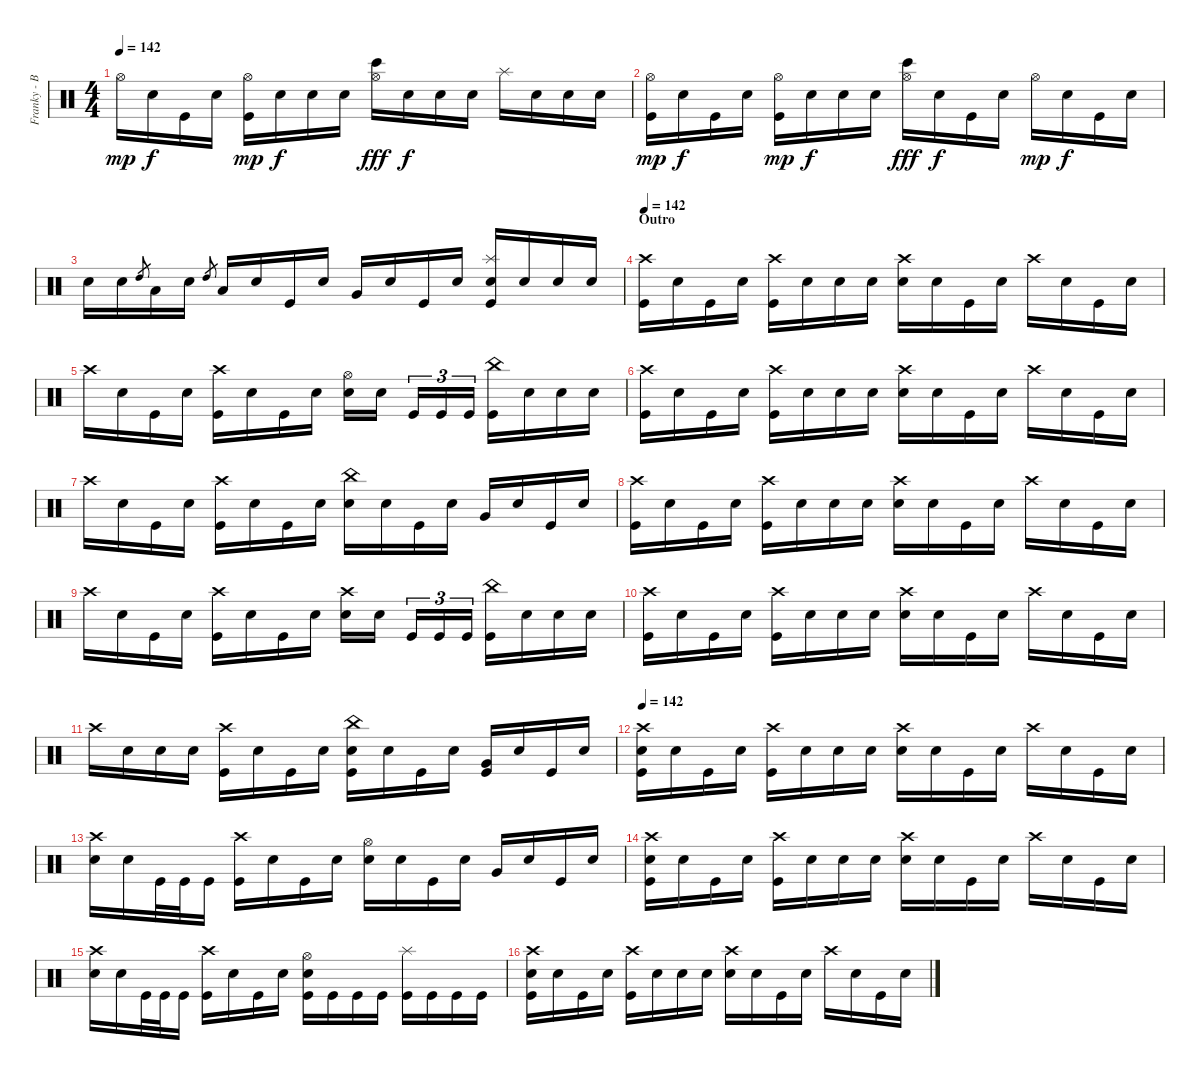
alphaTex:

\track ("Franky - Batterie" "Franky - B") {instrument percussion}
\staff {score}
\articulation defaults
\ts (4 4)
\tempo 142
\clef neutral
\ks c "Hi-Hat (open)".16{dy mp} "Snare (hit)".16{dy f} "Kick (hit)".16 "Snare (hit)".16
("Hi-Hat (open)" "Kick (hit)").16{dy mp} "Snare (hit)".16{dy f} "Snare (hit)".16 "Snare (hit)".16 ("Hi-Hat (open)" "Bongo High (hit)").16{dy fff} "Snare (hit)".16{dy f} "Snare (hit)".16 "Snare (hit)".16 "Splash (hit)".16 "Snare (hit)".16 "Snare (hit)".16 "Snare (hit)".16 |
("Hi-Hat (open)" "Kick (hit)").16{dy mp} "Snare (hit)".16{dy f} "Kick (hit)".16 "Snare (hit)".16 ("Hi-Hat (open)" "Kick (hit)").16{dy mp} "Snare (hit)".16{dy f} "Snare (hit)".16 "Snare (hit)".16 ("Hi-Hat (open)" "Bongo High (hit)").16{dy fff} "Snare (hit)".16{dy f} "Kick (hit)".16 "Snare (hit)".16 "Hi-Hat (open)".16{dy mp} "Snare (hit)".16{dy f} "Kick (hit)".16 "Snare (hit)".16 |
"Snare (hit)".16 "Snare (hit)".16 "High Tom (hit)".8{gr} "Low Tom (hit)".16 "Snare (hit)".16 "High Tom (hit)".8{gr} "Low Tom (hit)".16 "Snare (hit)".16 "Kick (hit)".16 "Snare (hit)".16 "Very Low Tom (hit)".16 "Snare (hit)".16 "Kick (hit)".16 "Snare (hit)".16 ("Splash (hit)" "Electric Snare (hit)" "Kick (hit)").16 "Snare (hit)".16 "Snare (hit)".16 "Snare (hit)".16 |
\section ("" "Outro")
\tempo 142
("Crash high (hit)" "Kick (hit)").16{volume 16 balance 8} "Snare (hit)".16 "Kick (hit)".16 "Snare (hit)".16 ("Crash high (hit)" "Kick (hit)").16 "Snare (hit)".16 "Snare (hit)".16 "Snare (hit)".16 ("Crash high (hit)" "Electric Snare (hit)").16 "Snare (hit)".16 "Kick (hit)".16 "Snare (hit)".16 "Crash high (hit)".16 "Snare (hit)".16 "Kick (hit)".16 "Snare (hit)".16 |
"Crash high (hit)".16 "Snare (hit)".16 "Kick (hit)".16 "Snare (hit)".16 ("Crash high (hit)" "Kick (hit)").16 "Snare (hit)".16 "Kick (hit)".16 "Snare (hit)".16 ("Hi-Hat (open)" "Electric Snare (hit)").16 "Snare (hit)".16 "Kick (hit)".16{tu (3 2)} "Kick (hit)".16{tu (3 2)} "Kick (hit)".16{tu (3 2)} ("China (hit)" "Kick (hit)").16 "Snare (hit)".16 "Snare (hit)".16 "Snare (hit)".16 |
("Crash high (hit)" "Kick (hit)").16 "Snare (hit)".16 "Kick (hit)".16 "Snare (hit)".16 ("Crash high (hit)" "Kick (hit)").16 "Snare (hit)".16 "Snare (hit)".16 "Snare (hit)".16 ("Crash high (hit)" "Electric Snare (hit)").16 "Snare (hit)".16 "Kick (hit)".16 "Snare (hit)".16 "Crash high (hit)".16 "Snare (hit)".16 "Kick (hit)".16 "Snare (hit)".16 |
"Crash high (hit)".16 "Snare (hit)".16 "Kick (hit)".16 "Snare (hit)".16 ("Crash high (hit)" "Kick (hit)").16 "Snare (hit)".16 "Kick (hit)".16 "Snare (hit)".16 ("China (hit)" "Electric Snare (hit)").16 "Snare (hit)".16 "Kick (hit)".16 "Snare (hit)".16 "Very Low Tom (hit)".16 "Snare (hit)".16 "Kick (hit)".16 "Snare (hit)".16 |
("Crash high (hit)" "Kick (hit)").16 "Snare (hit)".16 "Kick (hit)".16 "Snare (hit)".16 ("Crash high (hit)" "Kick (hit)").16 "Snare (hit)".16 "Snare (hit)".16 "Snare (hit)".16 ("Crash high (hit)" "Electric Snare (hit)").16 "Snare (hit)".16 "Kick (hit)".16 "Snare (hit)".16 "Crash high (hit)".16 "Snare (hit)".16 "Kick (hit)".16 "Snare (hit)".16 |
"Crash high (hit)".16 "Snare (hit)".16 "Kick (hit)".16 "Snare (hit)".16 ("Crash high (hit)" "Kick (hit)").16 "Snare (hit)".16 "Kick (hit)".16 "Snare (hit)".16 ("Crash high (hit)" "Electric Snare (hit)").16 "Snare (hit)".16 "Kick (hit)".16{tu (3 2)} "Kick (hit)".16{tu (3 2)} "Kick (hit)".16{tu (3 2)} ("China (hit)" "Kick (hit)").16 "Snare (hit)".16 "Snare (hit)".16 "Snare (hit)".16 |
("Crash high (hit)" "Kick (hit)").16 "Snare (hit)".16 "Kick (hit)".16 "Snare (hit)".16 ("Crash high (hit)" "Kick (hit)").16 "Snare (hit)".16 "Snare (hit)".16 "Snare (hit)".16 ("Crash high (hit)" "Electric Snare (hit)").16 "Snare (hit)".16 "Kick (hit)".16 "Snare (hit)".16 "Crash high (hit)".16 "Snare (hit)".16 "Kick (hit)".16 "Snare (hit)".16 |
"Crash high (hit)".16 "Snare (hit)".16 "Electric Snare (hit)".16 "Snare (hit)".16 ("Crash high (hit)" "Kick (hit)").16 "Snare (hit)".16 "Kick (hit)".16 "Snare (hit)".16 ("China (hit)" "Electric Snare (hit)" "Kick (hit)").16 "Snare (hit)".16 "Kick (hit)".16 "Snare (hit)".16 ("Very Low Tom (hit)" "Kick (hit)").16 "Snare (hit)".16 "Kick (hit)".16 "Snare (hit)".16 |
\section ("" "")
\tempo 142
("Crash high (hit)" "Electric Snare (hit)" "Kick (hit)").16{volume 16 balance 8} "Snare (hit)".16 "Kick (hit)".16 "Snare (hit)".16 ("Crash high (hit)" "Kick (hit)").16 "Snare (hit)".16 "Snare (hit)".16 "Snare (hit)".16 ("Crash high (hit)" "Electric Snare (hit)").16 "Snare (hit)".16 "Kick (hit)".16 "Snare (hit)".16 "Crash high (hit)".16 "Snare (hit)".16 "Kick (hit)".16 "Snare (hit)".16 |
("Crash high (hit)" "Electric Snare (hit)").16 "Snare (hit)".16 "Kick (hit)".32 "Kick (hit)".32 "Kick (hit)".16 ("Crash high (hit)" "Kick (hit)").16 "Snare (hit)".16 "Kick (hit)".16 "Snare (hit)".16 ("Hi-Hat (open)" "Electric Snare (hit)").16 "Snare (hit)".16 "Kick (hit)".16 "Snare (hit)".16 "Very Low Tom (hit)".16 "Snare (hit)".16 "Kick (hit)".16 "Snare (hit)".16 |
("Crash high (hit)" "Electric Snare (hit)" "Kick (hit)").16 "Snare (hit)".16 "Kick (hit)".16 "Snare (hit)".16 ("Crash high (hit)" "Kick (hit)").16 "Snare (hit)".16 "Snare (hit)".16 "Snare (hit)".16 ("Crash high (hit)" "Electric Snare (hit)").16 "Snare (hit)".16 "Kick (hit)".16 "Snare (hit)".16 "Crash high (hit)".16 "Snare (hit)".16 "Kick (hit)".16 "Snare (hit)".16 |
("Crash high (hit)" "Electric Snare (hit)").16 "Snare (hit)".16 "Kick (hit)".32 "Kick (hit)".32 "Kick (hit)".16 ("Crash high (hit)" "Kick (hit)").16 "Snare (hit)".16 "Kick (hit)".16 "Snare (hit)".16 ("Hi-Hat (open)" "Electric Snare (hit)" "Kick (hit)").16 "Kick (hit)".16 "Kick (hit)".16 "Kick (hit)".16 ("Splash (hit)" "Kick (hit)").16 "Kick (hit)".16 "Kick (hit)".16 "Kick (hit)".16 |
("Crash high (hit)" "Electric Snare (hit)" "Kick (hit)").16 "Snare (hit)".16 "Kick (hit)".16 "Snare (hit)".16 ("Crash high (hit)" "Kick (hit)").16 "Snare (hit)".16 "Snare (hit)".16 "Snare (hit)".16 ("Crash high (hit)" "Electric Snare (hit)").16 "Snare (hit)".16 "Kick (hit)".16 "Snare (hit)".16 "Crash high (hit)".16 "Snare (hit)".16 "Kick (hit)".16 "Snare (hit)".16
